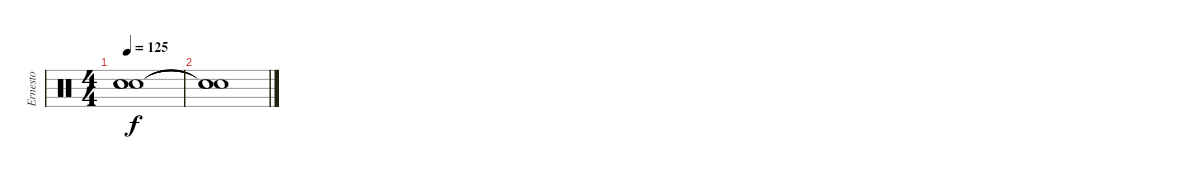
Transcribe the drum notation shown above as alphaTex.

\track ("Ernesto" "Ernesto") {instrument percussion}
\staff {score}
\articulation defaults
\ts (4 4)
\tempo 125
\clef neutral
\ks c
("Snare (hit)"{t} "Snare (hit)"{t} "Snare (hit)"{t}).1{dy f} |
("Snare (hit)"{t} "Snare (hit)"{t} "Snare (hit)"{t}).1
